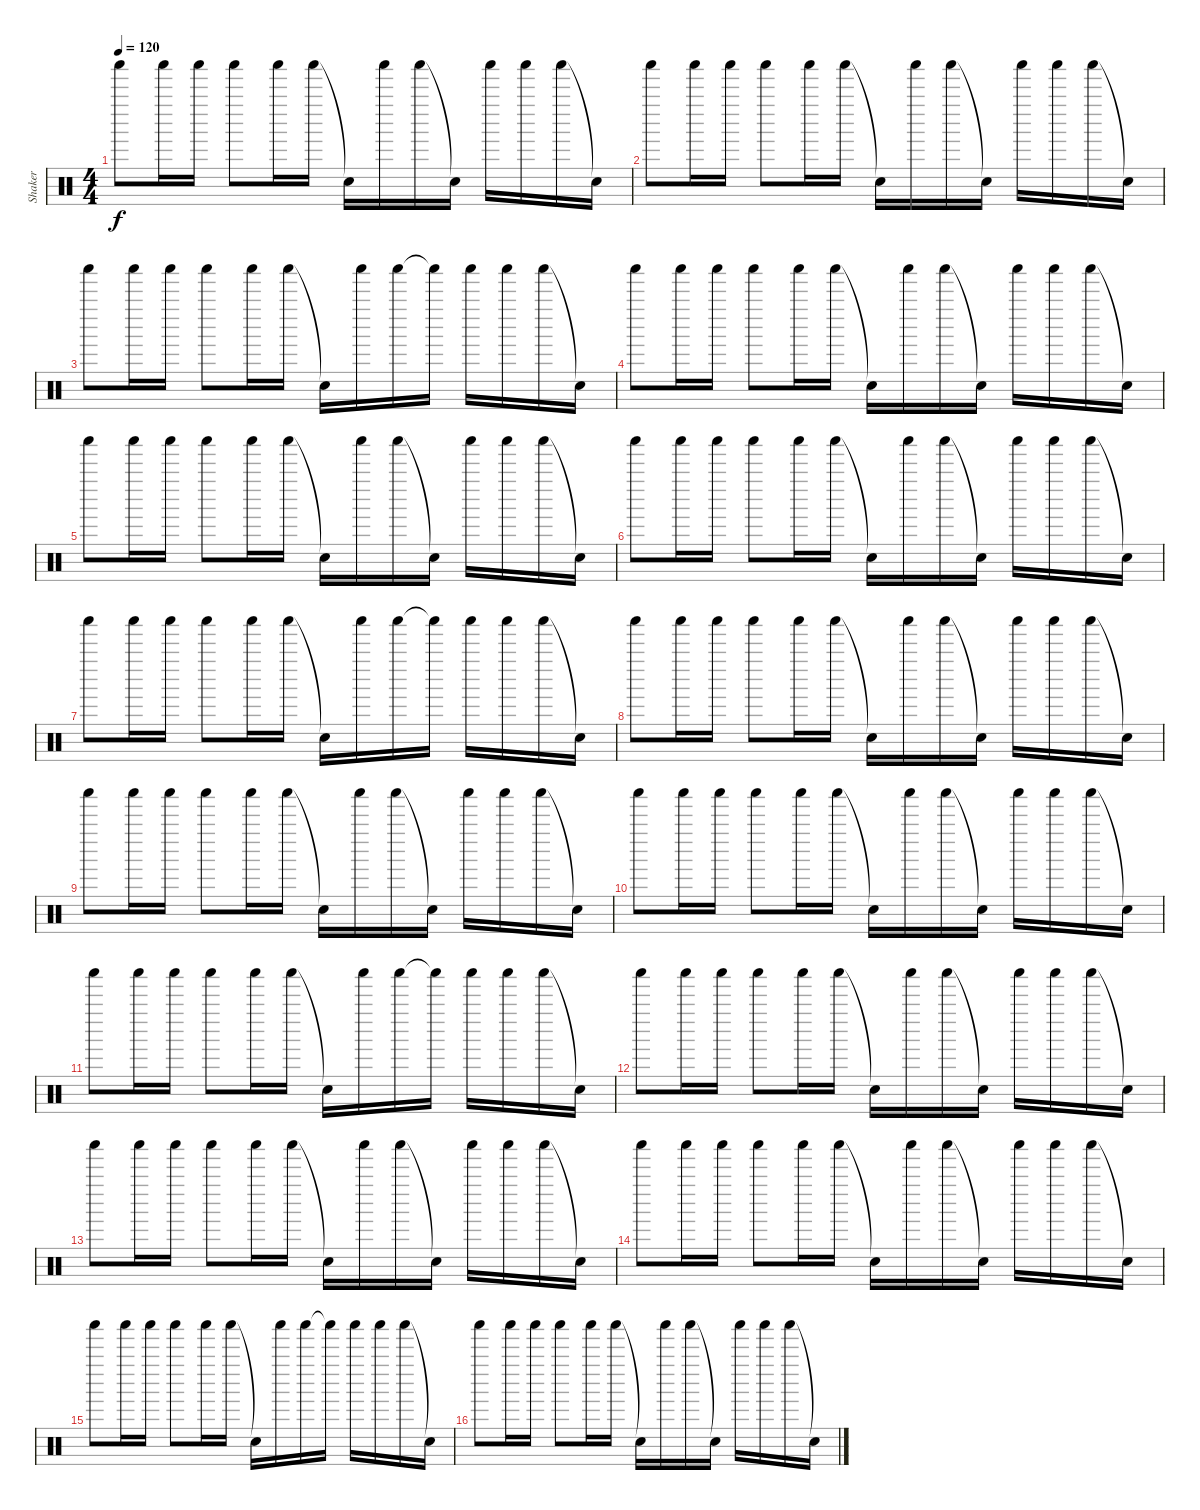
\track ("Shaker" "Shaker") {instrument percussion}
\staff {score}
\articulation defaults
\ts (4 4)
\tempo 120
\clef neutral
\ks c "Shaker (hit)".8{dy f} "Shaker (hit)".16 "Shaker (hit)".16 "Shaker (hit)".8 "Shaker (hit)".16 "Shaker (hit)".16 "Snare (hit)"{t}.16 "Shaker (hit)".16 "Shaker (hit)".16 "Snare (hit)"{t}.16 "Shaker (hit)".16 "Shaker (hit)".16 "Shaker (hit)".16 "Snare (hit)"{t}.16
|
"Shaker (hit)".8 "Shaker (hit)".16 "Shaker (hit)".16 "Shaker (hit)".8 "Shaker (hit)".16 "Shaker (hit)".16 "Snare (hit)"{t}.16 "Shaker (hit)".16 "Shaker (hit)".16 "Snare (hit)"{t}.16 "Shaker (hit)".16 "Shaker (hit)".16 "Shaker (hit)".16 "Snare (hit)"{t}.16 |
"Shaker (hit)".8 "Shaker (hit)".16 "Shaker (hit)".16 "Shaker (hit)".8 "Shaker (hit)".16 "Shaker (hit)".16 "Snare (hit)"{t}.16 "Shaker (hit)".16 "Shaker (hit)".16 "Shaker (hit)"{t}.16 "Shaker (hit)".16 "Shaker (hit)".16 "Shaker (hit)".16 "Snare (hit)"{t}.16 |
"Shaker (hit)".8 "Shaker (hit)".16 "Shaker (hit)".16 "Shaker (hit)".8 "Shaker (hit)".16 "Shaker (hit)".16 "Snare (hit)"{t}.16 "Shaker (hit)".16 "Shaker (hit)".16 "Snare (hit)"{t}.16 "Shaker (hit)".16 "Shaker (hit)".16 "Shaker (hit)".16 "Snare (hit)"{t}.16 |
"Shaker (hit)".8 "Shaker (hit)".16 "Shaker (hit)".16 "Shaker (hit)".8 "Shaker (hit)".16 "Shaker (hit)".16 "Snare (hit)"{t}.16 "Shaker (hit)".16 "Shaker (hit)".16 "Snare (hit)"{t}.16 "Shaker (hit)".16 "Shaker (hit)".16 "Shaker (hit)".16 "Snare (hit)"{t}.16 |
"Shaker (hit)".8 "Shaker (hit)".16 "Shaker (hit)".16 "Shaker (hit)".8 "Shaker (hit)".16 "Shaker (hit)".16 "Snare (hit)"{t}.16 "Shaker (hit)".16 "Shaker (hit)".16 "Snare (hit)"{t}.16 "Shaker (hit)".16 "Shaker (hit)".16 "Shaker (hit)".16 "Snare (hit)"{t}.16 |
"Shaker (hit)".8 "Shaker (hit)".16 "Shaker (hit)".16 "Shaker (hit)".8 "Shaker (hit)".16 "Shaker (hit)".16 "Snare (hit)"{t}.16 "Shaker (hit)".16 "Shaker (hit)".16 "Shaker (hit)"{t}.16 "Shaker (hit)".16 "Shaker (hit)".16 "Shaker (hit)".16 "Snare (hit)"{t}.16 |
"Shaker (hit)".8 "Shaker (hit)".16 "Shaker (hit)".16 "Shaker (hit)".8 "Shaker (hit)".16 "Shaker (hit)".16 "Snare (hit)"{t}.16 "Shaker (hit)".16 "Shaker (hit)".16 "Snare (hit)"{t}.16 "Shaker (hit)".16 "Shaker (hit)".16 "Shaker (hit)".16 "Snare (hit)"{t}.16 |
"Shaker (hit)".8 "Shaker (hit)".16 "Shaker (hit)".16 "Shaker (hit)".8 "Shaker (hit)".16 "Shaker (hit)".16 "Snare (hit)"{t}.16 "Shaker (hit)".16 "Shaker (hit)".16 "Snare (hit)"{t}.16 "Shaker (hit)".16 "Shaker (hit)".16 "Shaker (hit)".16 "Snare (hit)"{t}.16 |
"Shaker (hit)".8 "Shaker (hit)".16 "Shaker (hit)".16 "Shaker (hit)".8 "Shaker (hit)".16 "Shaker (hit)".16 "Snare (hit)"{t}.16 "Shaker (hit)".16 "Shaker (hit)".16 "Snare (hit)"{t}.16 "Shaker (hit)".16 "Shaker (hit)".16 "Shaker (hit)".16 "Snare (hit)"{t}.16 |
"Shaker (hit)".8 "Shaker (hit)".16 "Shaker (hit)".16 "Shaker (hit)".8 "Shaker (hit)".16 "Shaker (hit)".16 "Snare (hit)"{t}.16 "Shaker (hit)".16 "Shaker (hit)".16 "Shaker (hit)"{t}.16 "Shaker (hit)".16 "Shaker (hit)".16 "Shaker (hit)".16 "Snare (hit)"{t}.16 |
"Shaker (hit)".8 "Shaker (hit)".16 "Shaker (hit)".16 "Shaker (hit)".8 "Shaker (hit)".16 "Shaker (hit)".16 "Snare (hit)"{t}.16 "Shaker (hit)".16 "Shaker (hit)".16 "Snare (hit)"{t}.16 "Shaker (hit)".16 "Shaker (hit)".16 "Shaker (hit)".16 "Snare (hit)"{t}.16 |
"Shaker (hit)".8 "Shaker (hit)".16 "Shaker (hit)".16 "Shaker (hit)".8 "Shaker (hit)".16 "Shaker (hit)".16 "Snare (hit)"{t}.16 "Shaker (hit)".16 "Shaker (hit)".16 "Snare (hit)"{t}.16 "Shaker (hit)".16 "Shaker (hit)".16 "Shaker (hit)".16 "Snare (hit)"{t}.16 |
"Shaker (hit)".8 "Shaker (hit)".16 "Shaker (hit)".16 "Shaker (hit)".8 "Shaker (hit)".16 "Shaker (hit)".16 "Snare (hit)"{t}.16 "Shaker (hit)".16 "Shaker (hit)".16 "Snare (hit)"{t}.16 "Shaker (hit)".16 "Shaker (hit)".16 "Shaker (hit)".16 "Snare (hit)"{t}.16 |
"Shaker (hit)".8 "Shaker (hit)".16 "Shaker (hit)".16 "Shaker (hit)".8 "Shaker (hit)".16 "Shaker (hit)".16 "Snare (hit)"{t}.16 "Shaker (hit)".16 "Shaker (hit)".16 "Shaker (hit)"{t}.16 "Shaker (hit)".16 "Shaker (hit)".16 "Shaker (hit)".16 "Snare (hit)"{t}.16 |
"Shaker (hit)".8 "Shaker (hit)".16 "Shaker (hit)".16 "Shaker (hit)".8 "Shaker (hit)".16 "Shaker (hit)".16 "Snare (hit)"{t}.16 "Shaker (hit)".16 "Shaker (hit)".16 "Snare (hit)"{t}.16 "Shaker (hit)".16 "Shaker (hit)".16 "Shaker (hit)".16 "Snare (hit)"{t}.16
